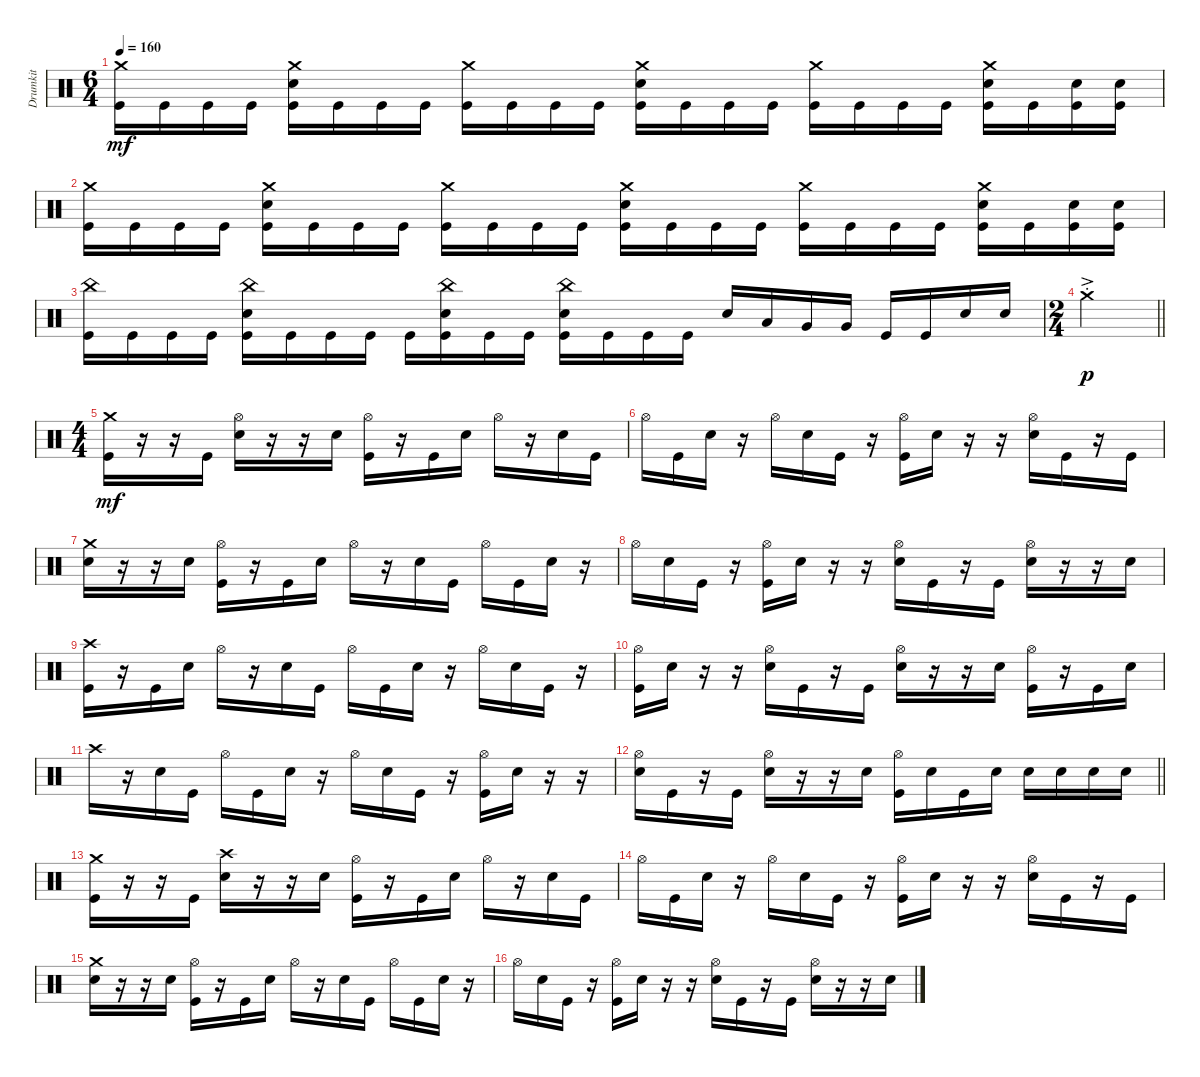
\track ("Drumkit" "Drumkit") {instrument percussion}
\staff {score}
\articulation defaults
\ts (6 4)
\tempo 160
\clef neutral
\ks c
("Crash medium (hit)" "Kick (hit)").16{dy mf} "Kick (hit)".16 "Kick (hit)".16 "Kick (hit)".16 ("Kick (hit)" "Crash medium (hit)" "Snare (hit) 2").16 "Kick (hit)".16 "Kick (hit)".16 "Kick (hit)".16 ("Kick (hit)" "Crash medium (hit)").16 "Kick (hit)".16 "Kick (hit)".16 "Kick (hit)".16 ("Kick (hit)" "Crash medium (hit)" "Snare (hit) 2").16 "Kick (hit)".16 "Kick (hit)".16 "Kick (hit)".16 ("Kick (hit)" "Crash medium (hit)").16 "Kick (hit)".16 "Kick (hit)".16 "Kick (hit)".16 ("Snare (hit) 2" "Kick (hit)" "Crash medium (hit)").16 "Kick (hit)".16 ("Kick (hit)" "Snare (hit) 2").16 ("Kick (hit)" "Snare (hit) 2").16 |
("Crash medium (hit)" "Kick (hit)").16 "Kick (hit)".16 "Kick (hit)".16 "Kick (hit)".16 ("Kick (hit)" "Crash medium (hit)" "Snare (hit) 2").16 "Kick (hit)".16 "Kick (hit)".16 "Kick (hit)".16 ("Kick (hit)" "Crash medium (hit)").16 "Kick (hit)".16 "Kick (hit)".16 "Kick (hit)".16 ("Kick (hit)" "Crash medium (hit)" "Snare (hit) 2").16 "Kick (hit)".16 "Kick (hit)".16 "Kick (hit)".16 ("Kick (hit)" "Crash medium (hit)").16 "Kick (hit)".16 "Kick (hit)".16 "Kick (hit)".16 ("Snare (hit) 2" "Kick (hit)" "Crash medium (hit)").16 "Kick (hit)".16 ("Kick (hit)" "Snare (hit) 2").16 ("Kick (hit)" "Snare (hit) 2").16 |
("Kick (hit)" "China (hit)").16 "Kick (hit)".16 "Kick (hit)".16 "Kick (hit)".16 ("Kick (hit)" "Snare (hit) 2" "China (hit)").16 "Kick (hit)".16 "Kick (hit)".16 "Kick (hit)".16 "Kick (hit)".16 ("Kick (hit)" "Snare (hit) 2" "China (hit)").16 "Kick (hit)".16 "Kick (hit)".16 ("Kick (hit)" "Snare (hit) 2" "China (hit)").16 "Kick (hit)".16 "Kick (hit)".16 "Kick (hit)".16 "Snare (hit) 2".16 "Low Tom (hit)".16 "Very Low Tom (hit)".16 "Very Low Tom (hit)".16 "Kick (hit)".16 "Kick (hit)".16 "Snare (hit) 2".16 "Snare (hit) 2".16 |
\ts (2 4)
\barLineRight lightlight "Crash medium (hit)"{ac st}.2{dy p}
|
\ts (4 4)
("Kick (hit)" "Crash medium (hit)").16{dy mf} r.16 r.16 "Kick (hit)".16 ("Hi-Hat (open)" "Snare (hit) 2").16 r.16 r.16 "Snare (hit) 2".16 ("Hi-Hat (open)" "Kick (hit)").16 r.16 "Kick (hit)".16 "Snare (hit) 2".16 "Hi-Hat (open)".16 r.16 "Snare (hit) 2".16 "Kick (hit)".16 |
"Hi-Hat (open)".16 "Kick (hit)".16 "Snare (hit) 2".16 r.16 "Hi-Hat (open)".16 "Snare (hit) 2".16 "Kick (hit)".16 r.16 ("Kick (hit)" "Hi-Hat (open)").16 "Snare (hit) 2".16 r.16 r.16 ("Snare (hit) 2" "Hi-Hat (open)").16 "Kick (hit)".16 r.16 "Kick (hit)".16 |
("Snare (hit) 2" "Crash medium (hit)").16 r.16 r.16 "Snare (hit) 2".16 ("Kick (hit)" "Hi-Hat (open)").16 r.16 "Kick (hit)".16 "Snare (hit) 2".16 "Hi-Hat (open)".16 r.16 "Snare (hit) 2".16 "Kick (hit)".16 "Hi-Hat (open)".16 "Kick (hit)".16 "Snare (hit) 2".16 r.16 |
"Hi-Hat (open)".16 "Snare (hit) 2".16 "Kick (hit)".16 r.16 ("Kick (hit)" "Hi-Hat (open)").16 "Snare (hit) 2".16 r.16 r.16 ("Snare (hit) 2" "Hi-Hat (open)").16 "Kick (hit)".16 r.16 "Kick (hit)".16 ("Snare (hit) 2" "Hi-Hat (open)").16 r.16 r.16 "Snare (hit) 2".16 |
("Kick (hit)" "Crash high (hit)").16 r.16 "Kick (hit)".16 "Snare (hit) 2".16 "Hi-Hat (open)".16 r.16 "Snare (hit) 2".16 "Kick (hit)".16 "Hi-Hat (open)".16 "Kick (hit)".16 "Snare (hit) 2".16 r.16 "Hi-Hat (open)".16 "Snare (hit) 2".16 "Kick (hit)".16 r.16 |
("Kick (hit)" "Hi-Hat (open)").16 "Snare (hit) 2".16 r.16 r.16 ("Snare (hit) 2" "Hi-Hat (open)").16 "Kick (hit)".16 r.16 "Kick (hit)".16 ("Snare (hit) 2" "Hi-Hat (open)").16 r.16 r.16 "Snare (hit) 2".16 ("Kick (hit)" "Hi-Hat (open)").16 r.16 "Kick (hit)".16 "Snare (hit) 2".16 |
"Crash high (hit)".16 r.16 "Snare (hit) 2".16 "Kick (hit)".16 "Hi-Hat (open)".16 "Kick (hit)".16 "Snare (hit) 2".16 r.16 "Hi-Hat (open)".16 "Snare (hit) 2".16 "Kick (hit)".16 r.16 ("Kick (hit)" "Hi-Hat (open)").16 "Snare (hit) 2".16 r.16 r.16 |
\barLineRight lightlight
("Snare (hit) 2" "Hi-Hat (open)").16 "Kick (hit)".16 r.16 "Kick (hit)".16 ("Snare (hit) 2" "Hi-Hat (open)").16 r.16 r.16 "Snare (hit) 2".16 ("Kick (hit)" "Hi-Hat (open)").16 "Snare (hit) 2".16 "Kick (hit)".16 "Snare (hit) 2".16 "Snare (hit) 2".16 "Snare (hit) 2".16 "Snare (hit) 2".16 "Snare (hit) 2".16 |
("Kick (hit)" "Crash medium (hit)").16 r.16 r.16 "Kick (hit)".16 ("Snare (hit) 2" "Crash high (hit)").16 r.16 r.16 "Snare (hit) 2".16 ("Hi-Hat (open)" "Kick (hit)").16 r.16 "Kick (hit)".16 "Snare (hit) 2".16 "Hi-Hat (open)".16 r.16 "Snare (hit) 2".16 "Kick (hit)".16 |
"Hi-Hat (open)".16 "Kick (hit)".16 "Snare (hit) 2".16 r.16 "Hi-Hat (open)".16 "Snare (hit) 2".16 "Kick (hit)".16 r.16 ("Kick (hit)" "Hi-Hat (open)").16 "Snare (hit) 2".16 r.16 r.16 ("Snare (hit) 2" "Hi-Hat (open)").16 "Kick (hit)".16 r.16 "Kick (hit)".16 |
("Snare (hit) 2" "Crash medium (hit)").16 r.16 r.16 "Snare (hit) 2".16 ("Kick (hit)" "Hi-Hat (open)").16 r.16 "Kick (hit)".16 "Snare (hit) 2".16 "Hi-Hat (open)".16 r.16 "Snare (hit) 2".16 "Kick (hit)".16 "Hi-Hat (open)".16 "Kick (hit)".16 "Snare (hit) 2".16 r.16 |
"Hi-Hat (open)".16 "Snare (hit) 2".16 "Kick (hit)".16 r.16 ("Kick (hit)" "Hi-Hat (open)").16 "Snare (hit) 2".16 r.16 r.16 ("Snare (hit) 2" "Hi-Hat (open)").16 "Kick (hit)".16 r.16 "Kick (hit)".16 ("Snare (hit) 2" "Hi-Hat (open)").16 r.16 r.16 "Snare (hit) 2".16
